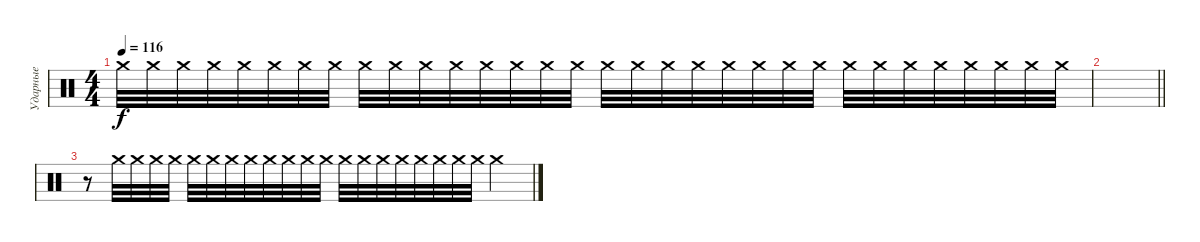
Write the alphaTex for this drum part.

\track ("Ударные" "Ударные") {instrument percussion}
\staff {score}
\articulation defaults
\ts (4 4)
\tempo 116
\clef neutral
\ks c "Crash medium (hit)".32{dy f volume 16} "Crash medium (hit)".32 "Crash medium (hit)".32 "Crash medium (hit)".32 "Crash medium (hit)".32 "Crash medium (hit)".32 "Crash medium (hit)".32 "Crash medium (hit)".32 "Crash medium (hit)".32 "Crash medium (hit)".32 "Crash medium (hit)".32 "Crash medium (hit)".32 "Crash medium (hit)".32 "Crash medium (hit)".32 "Crash medium (hit)".32 "Crash medium (hit)".32 "Crash medium (hit)".32 "Crash medium (hit)".32 "Crash medium (hit)".32 "Crash medium (hit)".32 "Crash medium (hit)".32 "Crash medium (hit)".32 "Crash medium (hit)".32 "Crash medium (hit)".32 "Crash medium (hit)".32 "Crash medium (hit)".32 "Crash medium (hit)".32 "Crash medium (hit)".32 "Crash medium (hit)".32 "Crash medium (hit)".32 "Crash medium (hit)".32 "Crash medium (hit)".32
|
\barLineRight lightlight
|
r.8{volume 1} "Crash medium (hit)".32{volume 16} "Crash medium (hit)".32 "Crash medium (hit)".32 "Crash medium (hit)".32 "Crash medium (hit)".32 "Crash medium (hit)".32 "Crash medium (hit)".32 "Crash medium (hit)".32 "Crash medium (hit)".32 "Crash medium (hit)".32 "Crash medium (hit)".32 "Crash medium (hit)".32 "Crash medium (hit)".32 "Crash medium (hit)".32 "Crash medium (hit)".32 "Crash medium (hit)".32 "Crash medium (hit)".32 "Crash medium (hit)".32 "Crash medium (hit)".32 "Crash medium (hit)".32 "Crash medium (hit)".4
